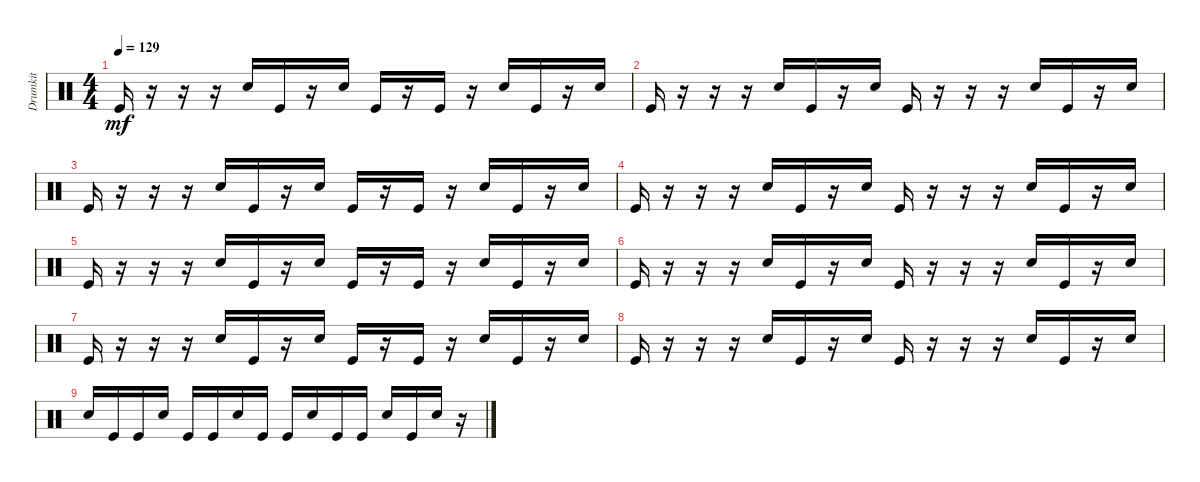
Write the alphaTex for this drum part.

\track ("Drumkit" "Drumkit") {instrument percussion}
\staff {score}
\articulation defaults
\ts (4 4)
\tempo 129
\clef neutral
\ks c "Kick (hit)".16{dy mf}
r.16 r.16 r.16 "Snare (hit) 2".16 "Kick (hit)".16 r.16 "Snare (hit) 2".16 "Kick (hit)".16 r.16 "Kick (hit)".16 r.16 "Snare (hit) 2".16 "Kick (hit)".16 r.16 "Snare (hit) 2".16 |
"Kick (hit)".16 r.16 r.16 r.16 "Snare (hit) 2".16 "Kick (hit)".16 r.16 "Snare (hit) 2".16 "Kick (hit)".16 r.16 r.16 r.16 "Snare (hit) 2".16 "Kick (hit)".16 r.16 "Snare (hit) 2".16 |
"Kick (hit)".16 r.16 r.16 r.16 "Snare (hit) 2".16 "Kick (hit)".16 r.16 "Snare (hit) 2".16 "Kick (hit)".16 r.16 "Kick (hit)".16 r.16 "Snare (hit) 2".16 "Kick (hit)".16 r.16 "Snare (hit) 2".16 |
"Kick (hit)".16 r.16 r.16 r.16 "Snare (hit) 2".16 "Kick (hit)".16 r.16 "Snare (hit) 2".16 "Kick (hit)".16 r.16 r.16 r.16 "Snare (hit) 2".16 "Kick (hit)".16 r.16 "Snare (hit) 2".16 |
"Kick (hit)".16 r.16 r.16 r.16 "Snare (hit) 2".16 "Kick (hit)".16 r.16 "Snare (hit) 2".16 "Kick (hit)".16 r.16 "Kick (hit)".16 r.16 "Snare (hit) 2".16 "Kick (hit)".16 r.16 "Snare (hit) 2".16 |
"Kick (hit)".16 r.16 r.16 r.16 "Snare (hit) 2".16 "Kick (hit)".16 r.16 "Snare (hit) 2".16 "Kick (hit)".16 r.16 r.16 r.16 "Snare (hit) 2".16 "Kick (hit)".16 r.16 "Snare (hit) 2".16 |
"Kick (hit)".16 r.16 r.16 r.16 "Snare (hit) 2".16 "Kick (hit)".16 r.16 "Snare (hit) 2".16 "Kick (hit)".16 r.16 "Kick (hit)".16 r.16 "Snare (hit) 2".16 "Kick (hit)".16 r.16 "Snare (hit) 2".16 |
"Kick (hit)".16 r.16 r.16 r.16 "Snare (hit) 2".16 "Kick (hit)".16 r.16 "Snare (hit) 2".16 "Kick (hit)".16 r.16 r.16 r.16 "Snare (hit) 2".16 "Kick (hit)".16 r.16 "Snare (hit) 2".16 |
"Snare (hit) 2".16 "Kick (hit)".16 "Kick (hit)".16 "Snare (hit) 2".16 "Kick (hit)".16 "Kick (hit)".16 "Snare (hit) 2".16 "Kick (hit)".16 "Kick (hit)".16 "Snare (hit) 2".16 "Kick (hit)".16 "Kick (hit)".16 "Snare (hit) 2".16 "Kick (hit)".16 "Snare (hit) 2".16 r.16
